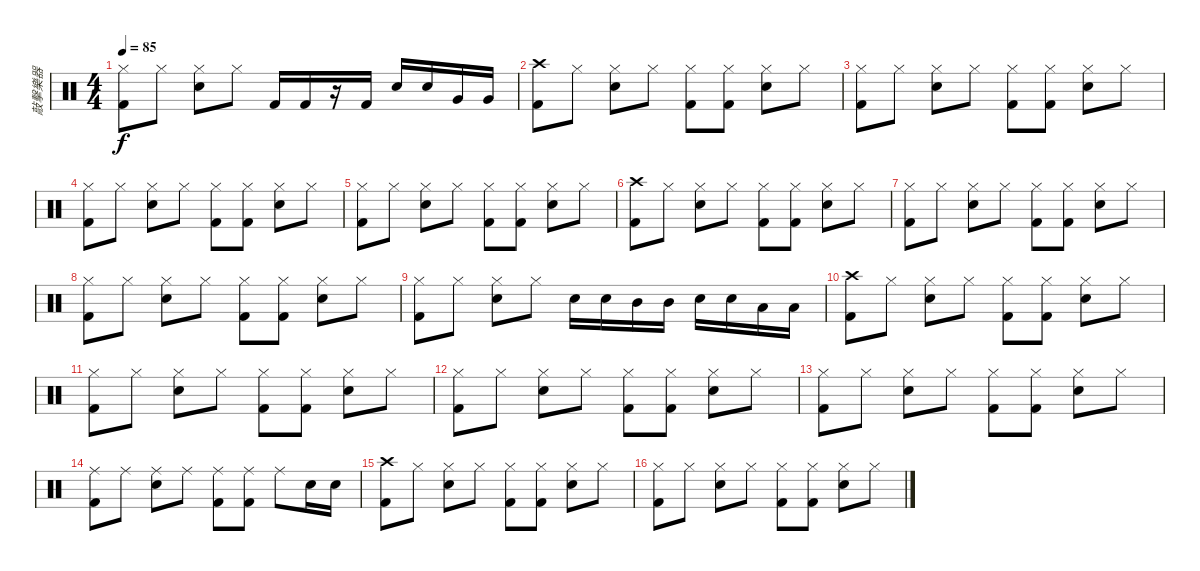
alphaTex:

\track ("敲擊樂器" "敲擊樂器") {instrument percussion}
\staff {score}
\articulation defaults
\ts (4 4)
\tempo 85
\clef neutral
\ks c
("Hi-Hat (closed)" "Kick (hit) 2").8{dy f} "Hi-Hat (closed)".8 ("Hi-Hat (closed)" "Snare (hit) 2").8 "Hi-Hat (closed)".8 "Kick (hit) 2".16 "Kick (hit) 2".16 r.16 "Kick (hit) 2".16 "Snare (hit) 2".16 "Snare (hit) 2".16 "Very Low Tom (hit)".16 "Very Low Tom (hit)".16 |
("Crash high (hit)" "Kick (hit) 2").8 "Hi-Hat (closed)".8 ("Hi-Hat (closed)" "Snare (hit) 2").8 "Hi-Hat (closed)".8 ("Hi-Hat (closed)" "Kick (hit) 2").8 ("Hi-Hat (closed)" "Kick (hit) 2").8 ("Hi-Hat (closed)" "Snare (hit) 2").8 "Hi-Hat (closed)".8 |
("Hi-Hat (closed)" "Kick (hit) 2").8 "Hi-Hat (closed)".8 ("Hi-Hat (closed)" "Snare (hit) 2").8 "Hi-Hat (closed)".8 ("Hi-Hat (closed)" "Kick (hit) 2").8 ("Hi-Hat (closed)" "Kick (hit) 2").8 ("Hi-Hat (closed)" "Snare (hit) 2").8 "Hi-Hat (closed)".8 |
("Hi-Hat (closed)" "Kick (hit) 2").8 "Hi-Hat (closed)".8 ("Hi-Hat (closed)" "Snare (hit) 2").8 "Hi-Hat (closed)".8 ("Hi-Hat (closed)" "Kick (hit) 2").8 ("Hi-Hat (closed)" "Kick (hit) 2").8 ("Hi-Hat (closed)" "Snare (hit) 2").8 "Hi-Hat (closed)".8 |
("Hi-Hat (closed)" "Kick (hit) 2").8 "Hi-Hat (closed)".8 ("Hi-Hat (closed)" "Snare (hit) 2").8 "Hi-Hat (closed)".8 ("Hi-Hat (closed)" "Kick (hit) 2").8 ("Hi-Hat (closed)" "Kick (hit) 2").8 ("Hi-Hat (closed)" "Snare (hit) 2").8 "Hi-Hat (closed)".8 |
("Crash high (hit)" "Kick (hit) 2").8 "Hi-Hat (closed)".8 ("Hi-Hat (closed)" "Snare (hit) 2").8 "Hi-Hat (closed)".8 ("Hi-Hat (closed)" "Kick (hit) 2").8 ("Hi-Hat (closed)" "Kick (hit) 2").8 ("Hi-Hat (closed)" "Snare (hit) 2").8 "Hi-Hat (closed)".8 |
("Hi-Hat (closed)" "Kick (hit) 2").8 "Hi-Hat (closed)".8 ("Hi-Hat (closed)" "Snare (hit) 2").8 "Hi-Hat (closed)".8 ("Hi-Hat (closed)" "Kick (hit) 2").8 ("Hi-Hat (closed)" "Kick (hit) 2").8 ("Hi-Hat (closed)" "Snare (hit) 2").8 "Hi-Hat (closed)".8 |
("Hi-Hat (closed)" "Kick (hit) 2").8 "Hi-Hat (closed)".8 ("Hi-Hat (closed)" "Snare (hit) 2").8 "Hi-Hat (closed)".8 ("Hi-Hat (closed)" "Kick (hit) 2").8 ("Hi-Hat (closed)" "Kick (hit) 2").8 ("Hi-Hat (closed)" "Snare (hit) 2").8 "Hi-Hat (closed)".8 |
("Hi-Hat (closed)" "Kick (hit) 2").8 "Hi-Hat (closed)".8 ("Hi-Hat (closed)" "Snare (hit) 2").8 "Hi-Hat (closed)".8 "Snare (hit) 2".16 "Snare (hit) 2".16 "Mid Tom (hit)".16 "Mid Tom (hit)".16 "Snare (hit) 2".16 "Snare (hit) 2".16 "Low Tom (hit)".16 "Low Tom (hit)".16 |
("Crash high (hit)" "Kick (hit) 2").8 "Hi-Hat (closed)".8 ("Hi-Hat (closed)" "Snare (hit) 2").8 "Hi-Hat (closed)".8 ("Hi-Hat (closed)" "Kick (hit) 2").8 ("Hi-Hat (closed)" "Kick (hit) 2").8 ("Hi-Hat (closed)" "Snare (hit) 2").8 "Hi-Hat (closed)".8 |
("Hi-Hat (closed)" "Kick (hit) 2").8 "Hi-Hat (closed)".8 ("Hi-Hat (closed)" "Snare (hit) 2").8 "Hi-Hat (closed)".8 ("Hi-Hat (closed)" "Kick (hit) 2").8 ("Hi-Hat (closed)" "Kick (hit) 2").8 ("Hi-Hat (closed)" "Snare (hit) 2").8 "Hi-Hat (closed)".8 |
("Hi-Hat (closed)" "Kick (hit) 2").8 "Hi-Hat (closed)".8 ("Hi-Hat (closed)" "Snare (hit) 2").8 "Hi-Hat (closed)".8 ("Hi-Hat (closed)" "Kick (hit) 2").8 ("Hi-Hat (closed)" "Kick (hit) 2").8 ("Hi-Hat (closed)" "Snare (hit) 2").8 "Hi-Hat (closed)".8 |
("Hi-Hat (closed)" "Kick (hit) 2").8 "Hi-Hat (closed)".8 ("Hi-Hat (closed)" "Snare (hit) 2").8 "Hi-Hat (closed)".8 ("Hi-Hat (closed)" "Kick (hit) 2").8 ("Hi-Hat (closed)" "Kick (hit) 2").8 ("Hi-Hat (closed)" "Snare (hit) 2").8 "Hi-Hat (closed)".8 |
("Ride (middle)" "Kick (hit) 2").8 "Ride (middle)".8 ("Ride (middle)" "Snare (hit) 2").8 "Ride (middle)".8 ("Ride (middle)" "Kick (hit) 2").8 ("Ride (middle)" "Kick (hit) 2").8 "Ride (middle)".8 "Snare (hit) 2".16 "Snare (hit) 2".16 |
("Crash high (hit)" "Kick (hit) 2").8 "Hi-Hat (closed)".8 ("Hi-Hat (closed)" "Snare (hit) 2").8 "Hi-Hat (closed)".8 ("Hi-Hat (closed)" "Kick (hit) 2").8 ("Hi-Hat (closed)" "Kick (hit) 2").8 ("Hi-Hat (closed)" "Snare (hit) 2").8 "Hi-Hat (closed)".8 |
("Hi-Hat (closed)" "Kick (hit) 2").8 "Hi-Hat (closed)".8 ("Hi-Hat (closed)" "Snare (hit) 2").8 "Hi-Hat (closed)".8 ("Hi-Hat (closed)" "Kick (hit) 2").8 ("Hi-Hat (closed)" "Kick (hit) 2").8 ("Hi-Hat (closed)" "Snare (hit) 2").8 "Hi-Hat (closed)".8
